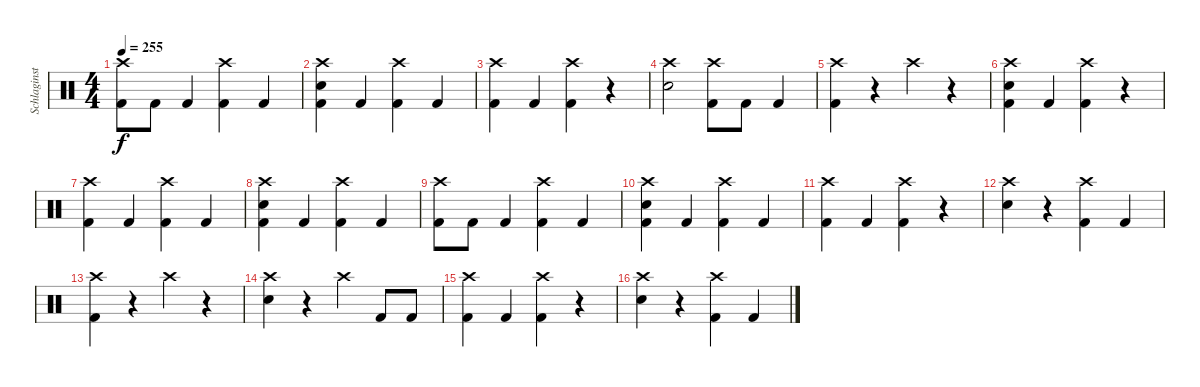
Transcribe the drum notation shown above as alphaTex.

\track ("Schlaginstrumente - Auswahl" "Schlaginst") {instrument percussion}
\staff {score}
\articulation defaults
\ts (4 4)
\tempo 255
\clef neutral
\ks c
("Crash high (hit)" "Kick (hit) 2").8{dy f} "Kick (hit) 2".8 "Kick (hit) 2".4 ("Crash high (hit)" "Kick (hit) 2").4 "Kick (hit) 2".4 |
("Crash high (hit)" "Electric Snare (hit)" "Kick (hit) 2").4 "Kick (hit) 2".4 ("Crash high (hit)" "Kick (hit) 2").4 "Kick (hit) 2".4 |
("Crash high (hit)" "Kick (hit) 2").4 "Kick (hit) 2".4 ("Crash high (hit)" "Kick (hit) 2").4 r.4 |
("Crash high (hit)" "Electric Snare (hit)").2 ("Crash high (hit)" "Kick (hit) 2").8 "Kick (hit) 2".8 "Kick (hit) 2".4 |
("Crash high (hit)" "Kick (hit) 2").4 r.4 "Crash high (hit)".4 r.4 |
("Crash high (hit)" "Electric Snare (hit)" "Kick (hit) 2").4 "Kick (hit) 2".4 ("Crash high (hit)" "Kick (hit) 2").4 r.4 |
("Crash high (hit)" "Kick (hit) 2").4 "Kick (hit) 2".4 ("Crash high (hit)" "Kick (hit) 2").4 "Kick (hit) 2".4 |
("Crash high (hit)" "Electric Snare (hit)" "Kick (hit) 2").4 "Kick (hit) 2".4 ("Crash high (hit)" "Kick (hit) 2").4 "Kick (hit) 2".4 |
("Crash high (hit)" "Kick (hit) 2").8 "Kick (hit) 2".8 "Kick (hit) 2".4 ("Crash high (hit)" "Kick (hit) 2").4 "Kick (hit) 2".4 |
("Crash high (hit)" "Electric Snare (hit)" "Kick (hit) 2").4 "Kick (hit) 2".4 ("Crash high (hit)" "Kick (hit) 2").4 "Kick (hit) 2".4 |
("Crash high (hit)" "Kick (hit) 2").4 "Kick (hit) 2".4 ("Crash high (hit)" "Kick (hit) 2").4 r.4 |
("Crash high (hit)" "Electric Snare (hit)").4 r.4 ("Crash high (hit)" "Kick (hit) 2").4 "Kick (hit) 2".4 |
("Crash high (hit)" "Kick (hit) 2").4 r.4 "Crash high (hit)".4 r.4 |
("Crash high (hit)" "Electric Snare (hit)").4 r.4 "Crash high (hit)".4 "Kick (hit) 2".8 "Kick (hit) 2".8 |
("Crash high (hit)" "Kick (hit) 2").4 "Kick (hit) 2".4 ("Crash high (hit)" "Kick (hit) 2").4 r.4 |
("Crash high (hit)" "Electric Snare (hit)").4 r.4 ("Crash high (hit)" "Kick (hit) 2").4 "Kick (hit) 2".4
